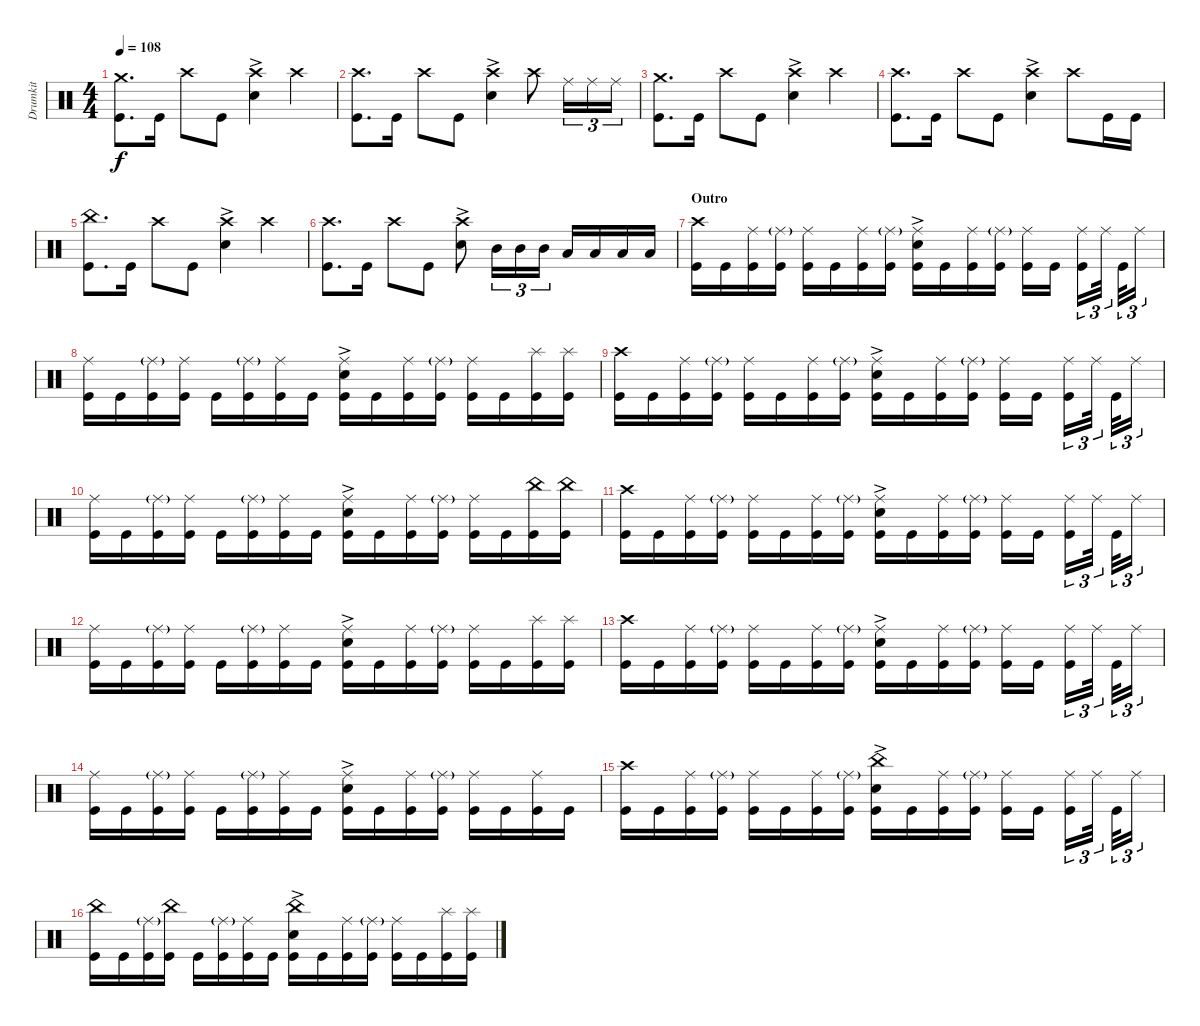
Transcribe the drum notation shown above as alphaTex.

\track ("Drumkit" "Drumkit") {instrument percussion}
\staff {score}
\articulation defaults
\ts (4 4)
\tempo 108
\clef neutral
\ks c
("Kick (hit)" "Crash medium (hit)").8{d dy f} "Kick (hit)".16 "Crash high (hit)".8 "Kick (hit)".8 ("Snare (hit) 2"{ac} "Crash high (hit)").4 "Crash high (hit)".4 |
("Kick (hit)" "Crash high (hit)").8{d} "Kick (hit)".16 "Crash high (hit)".8 "Kick (hit)".8 ("Snare (hit) 2"{ac} "Crash high (hit)").4 "Crash high (hit)".8 "Ride (middle)".16{tu (3 2)} "Ride (middle)".16{tu (3 2)} "Ride (middle)".16{tu (3 2)} |
("Kick (hit)" "Crash medium (hit)").8{d} "Kick (hit)".16 "Crash high (hit)".8 "Kick (hit)".8 ("Snare (hit) 2"{ac} "Crash high (hit)").4 "Crash high (hit)".4 |
("Kick (hit)" "Crash high (hit)").8{d} "Kick (hit)".16 "Crash high (hit)".8 "Kick (hit)".8 ("Snare (hit) 2"{ac} "Crash high (hit)").4 "Crash high (hit)".8 "Kick (hit)".16 "Kick (hit)".16 |
("Kick (hit)" "China (hit)").8{d} "Kick (hit)".16 "Crash high (hit)".8 "Kick (hit)".8 ("Snare (hit) 2"{ac} "Crash high (hit)").4 "Crash high (hit)".4 |
("Kick (hit)" "Crash high (hit)").8{d} "Kick (hit)".16 "Crash high (hit)".8 "Kick (hit)".8 ("Snare (hit) 2"{ac} "Crash high (hit)").8 "Mid Tom (hit)".16{tu (3 2)} "Mid Tom (hit)".16{tu (3 2)} "Mid Tom (hit)".16{tu (3 2)} "Low Tom (hit)".16 "Low Tom (hit)".16 "Low Tom (hit)".16 "Low Tom (hit)".16 |
\section ("" "Outro")
("Kick (hit)" "Crash high (hit)").16 "Kick (hit)".16 ("Kick (hit)" "Ride (middle)").16 ("Kick (hit)" "Ride (middle)"{g}).16 ("Kick (hit)" "Ride (middle)").16 "Kick (hit)".16 ("Kick (hit)" "Ride (middle)").16 ("Kick (hit)" "Ride (middle)"{g}).16 ("Kick (hit)" "Ride (middle)" "Snare (hit) 2"{ac}).16 "Kick (hit)".16 ("Kick (hit)" "Ride (middle)").16 ("Kick (hit)" "Ride (middle)"{g}).16 ("Kick (hit)" "Ride (middle)").16 "Kick (hit)".16 ("Ride (middle)" "Kick (hit)").16{tu (3 2)} "Ride (middle)".32{tu (3 2)} "Kick (hit)".32{tu (3 2)} "Ride (middle)".16{tu (3 2)} |
("Kick (hit)" "Ride (middle)").16 "Kick (hit)".16 ("Kick (hit)" "Ride (middle)"{g}).16 ("Kick (hit)" "Ride (middle)").16 "Kick (hit)".16 ("Kick (hit)" "Ride (middle)"{g}).16 ("Kick (hit)" "Ride (middle)").16 "Kick (hit)".16 ("Kick (hit)" "Ride (middle)" "Snare (hit) 2"{ac}).16 "Kick (hit)".16 ("Kick (hit)" "Ride (middle)").16 ("Kick (hit)" "Ride (middle)"{g}).16 ("Kick (hit)" "Ride (middle)").16 "Kick (hit)".16 ("Splash (hit)" "Kick (hit)").16 ("Splash (hit)" "Kick (hit)").16 |
("Kick (hit)" "Crash high (hit)").16 "Kick (hit)".16 ("Kick (hit)" "Ride (middle)").16 ("Kick (hit)" "Ride (middle)"{g}).16 ("Kick (hit)" "Ride (middle)").16 "Kick (hit)".16 ("Kick (hit)" "Ride (middle)").16 ("Kick (hit)" "Ride (middle)"{g}).16 ("Kick (hit)" "Ride (middle)" "Snare (hit) 2"{ac}).16 "Kick (hit)".16 ("Kick (hit)" "Ride (middle)").16 ("Kick (hit)" "Ride (middle)"{g}).16 ("Kick (hit)" "Ride (middle)").16 "Kick (hit)".16 ("Ride (middle)" "Kick (hit)").16{tu (3 2)} "Ride (middle)".32{tu (3 2)} "Kick (hit)".32{tu (3 2)} "Ride (middle)".16{tu (3 2)} |
("Kick (hit)" "Ride (middle)").16 "Kick (hit)".16 ("Kick (hit)" "Ride (middle)"{g}).16 ("Kick (hit)" "Ride (middle)").16 "Kick (hit)".16 ("Kick (hit)" "Ride (middle)"{g}).16 ("Kick (hit)" "Ride (middle)").16 "Kick (hit)".16 ("Kick (hit)" "Ride (middle)" "Snare (hit) 2"{ac}).16 "Kick (hit)".16 ("Kick (hit)" "Ride (middle)").16 ("Kick (hit)" "Ride (middle)"{g}).16 ("Kick (hit)" "Ride (middle)").16 "Kick (hit)".16 ("Kick (hit)" "China (hit)").16 ("Kick (hit)" "China (hit)").16 |
("Kick (hit)" "Crash high (hit)").16 "Kick (hit)".16 ("Kick (hit)" "Ride (middle)").16 ("Kick (hit)" "Ride (middle)"{g}).16 ("Kick (hit)" "Ride (middle)").16 "Kick (hit)".16 ("Kick (hit)" "Ride (middle)").16 ("Kick (hit)" "Ride (middle)"{g}).16 ("Kick (hit)" "Ride (middle)" "Snare (hit) 2"{ac}).16 "Kick (hit)".16 ("Kick (hit)" "Ride (middle)").16 ("Kick (hit)" "Ride (middle)"{g}).16 ("Kick (hit)" "Ride (middle)").16 "Kick (hit)".16 ("Ride (middle)" "Kick (hit)").16{tu (3 2)} "Ride (middle)".32{tu (3 2)} "Kick (hit)".32{tu (3 2)} "Ride (middle)".16{tu (3 2)} |
("Kick (hit)" "Ride (middle)").16 "Kick (hit)".16 ("Kick (hit)" "Ride (middle)"{g}).16 ("Kick (hit)" "Ride (middle)").16 "Kick (hit)".16 ("Kick (hit)" "Ride (middle)"{g}).16 ("Kick (hit)" "Ride (middle)").16 "Kick (hit)".16 ("Kick (hit)" "Ride (middle)" "Snare (hit) 2"{ac}).16 "Kick (hit)".16 ("Kick (hit)" "Ride (middle)").16 ("Kick (hit)" "Ride (middle)"{g}).16 ("Kick (hit)" "Ride (middle)").16 "Kick (hit)".16 ("Splash (hit)" "Kick (hit)").16 ("Splash (hit)" "Kick (hit)").16 |
("Kick (hit)" "Crash high (hit)").16 "Kick (hit)".16 ("Kick (hit)" "Ride (middle)").16 ("Kick (hit)" "Ride (middle)"{g}).16 ("Kick (hit)" "Ride (middle)").16 "Kick (hit)".16 ("Kick (hit)" "Ride (middle)").16 ("Kick (hit)" "Ride (middle)"{g}).16 ("Kick (hit)" "Ride (middle)" "Snare (hit) 2"{ac}).16 "Kick (hit)".16 ("Kick (hit)" "Ride (middle)").16 ("Kick (hit)" "Ride (middle)"{g}).16 ("Kick (hit)" "Ride (middle)").16 "Kick (hit)".16 ("Ride (middle)" "Kick (hit)").16{tu (3 2)} "Ride (middle)".32{tu (3 2)} "Kick (hit)".32{tu (3 2)} "Ride (middle)".16{tu (3 2)} |
("Kick (hit)" "Ride (middle)").16 "Kick (hit)".16 ("Kick (hit)" "Ride (middle)"{g}).16 ("Kick (hit)" "Ride (middle)").16 "Kick (hit)".16 ("Kick (hit)" "Ride (middle)"{g}).16 ("Kick (hit)" "Ride (middle)").16 "Kick (hit)".16 ("Kick (hit)" "Ride (middle)" "Snare (hit) 2"{ac}).16 "Kick (hit)".16 ("Kick (hit)" "Ride (middle)").16 ("Kick (hit)" "Ride (middle)"{g}).16 ("Kick (hit)" "Ride (middle)").16 "Kick (hit)".16 ("Kick (hit)" "Ride (middle)").16 "Kick (hit)".16 |
("Kick (hit)" "Crash high (hit)").16 "Kick (hit)".16 ("Kick (hit)" "Ride (middle)").16 ("Kick (hit)" "Ride (middle)"{g}).16 ("Kick (hit)" "Ride (middle)").16 "Kick (hit)".16 ("Kick (hit)" "Ride (middle)").16 ("Kick (hit)" "Ride (middle)"{g}).16 ("Kick (hit)" "Snare (hit) 2"{ac} "China (hit)").16 "Kick (hit)".16 ("Kick (hit)" "Ride (middle)").16 ("Kick (hit)" "Ride (middle)"{g}).16 ("Kick (hit)" "Ride (middle)").16 "Kick (hit)".16 ("Ride (middle)" "Kick (hit)").16{tu (3 2)} "Ride (middle)".32{tu (3 2)} "Kick (hit)".32{tu (3 2)} "Ride (middle)".16{tu (3 2)} |
("Kick (hit)" "China (hit)").16 "Kick (hit)".16 ("Kick (hit)" "Ride (middle)"{g}).16 ("Kick (hit)" "China (hit)").16 "Kick (hit)".16 ("Kick (hit)" "Ride (middle)"{g}).16 ("Kick (hit)" "Ride (middle)").16 "Kick (hit)".16 ("Kick (hit)" "Snare (hit) 2"{ac} "China (hit)").16 "Kick (hit)".16 ("Kick (hit)" "Ride (middle)").16 ("Kick (hit)" "Ride (middle)"{g}).16 ("Kick (hit)" "Ride (middle)").16 "Kick (hit)".16 ("Splash (hit)" "Kick (hit)").16 ("Splash (hit)" "Kick (hit)").16
